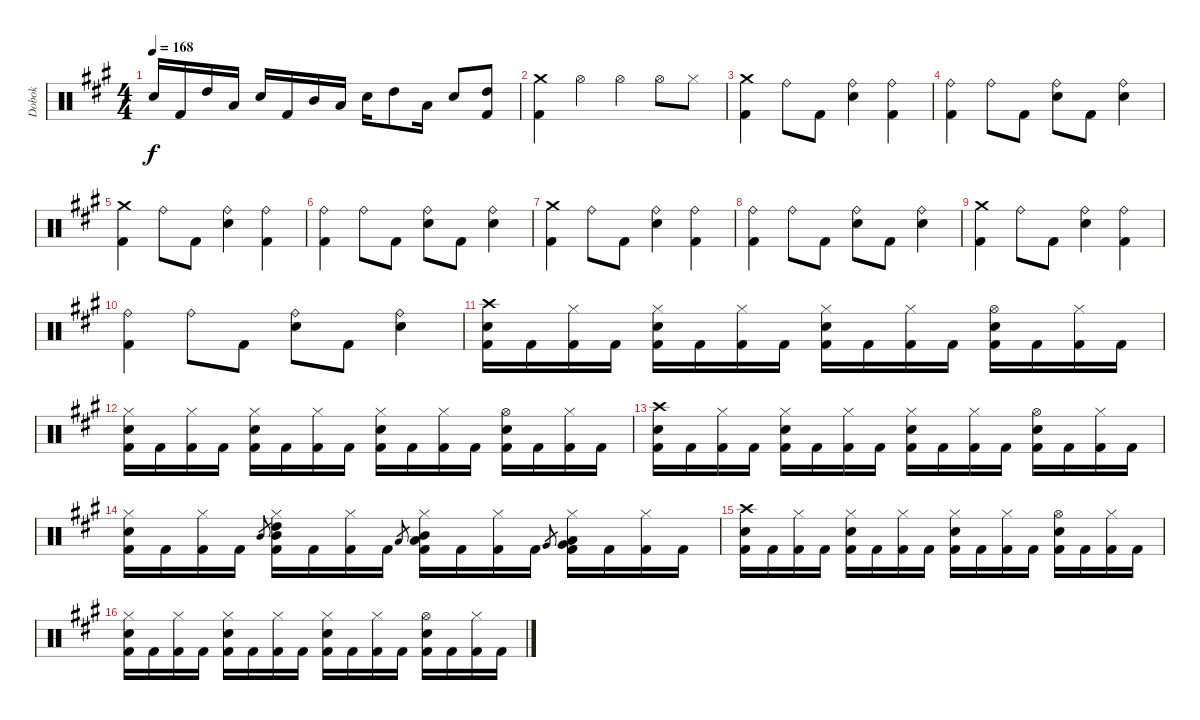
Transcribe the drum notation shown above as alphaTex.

\track ("Dobok" "Dobok") {instrument percussion}
\staff {score}
\articulation defaults
\ts (4 4)
\tempo 168
\clef neutral
\ks f#minor "Snare (hit) 2".16{dy f} "Kick (hit) 2".16 "High Tom (hit)".16 "Low Tom (hit)".16 "Snare (hit) 2".16 "Kick (hit) 2".16 "Mid Tom (hit)".16 "Low Tom (hit)".16 "Snare (hit) 2".16 "High Tom (hit)".8 "Low Tom (hit)".16 "Snare (hit) 2".8
("High Tom (hit)" "Kick (hit) 2").8 |
("Crash medium (hit)" "Kick (hit) 2").4 "Hi-Hat (open)".4 "Hi-Hat (open)".4 "Hi-Hat (open)".8 "Hi-Hat (closed)".8 |
("Crash medium (hit)" "Kick (hit) 2").4 "Ride (bell)".8 "Kick (hit) 2".8 ("Ride (bell)" "Snare (hit) 2").4 ("Ride (bell)" "Kick (hit) 2").4 |
("Ride (bell)" "Kick (hit) 2").4 "Ride (bell)".8 "Kick (hit) 2".8 ("Ride (bell)" "Snare (hit) 2").8 "Kick (hit) 2".8 ("Ride (bell)" "Snare (hit) 2").4 |
("Crash medium (hit)" "Kick (hit) 2").4 "Ride (bell)".8 "Kick (hit) 2".8 ("Ride (bell)" "Snare (hit) 2").4 ("Ride (bell)" "Kick (hit) 2").4 |
("Ride (bell)" "Kick (hit) 2").4 "Ride (bell)".8 "Kick (hit) 2".8 ("Ride (bell)" "Snare (hit) 2").8 "Kick (hit) 2".8 ("Ride (bell)" "Snare (hit) 2").4 |
("Crash medium (hit)" "Kick (hit) 2").4 "Ride (bell)".8 "Kick (hit) 2".8 ("Ride (bell)" "Snare (hit) 2").4 ("Ride (bell)" "Kick (hit) 2").4 |
("Ride (bell)" "Kick (hit) 2").4 "Ride (bell)".8 "Kick (hit) 2".8 ("Ride (bell)" "Snare (hit) 2").8 "Kick (hit) 2".8 ("Ride (bell)" "Snare (hit) 2").4 |
("Crash medium (hit)" "Kick (hit) 2").4 "Ride (bell)".8 "Kick (hit) 2".8 ("Ride (bell)" "Snare (hit) 2").4 ("Ride (bell)" "Kick (hit) 2").4 |
("Ride (bell)" "Kick (hit) 2").4 "Ride (bell)".8 "Kick (hit) 2".8 ("Ride (bell)" "Snare (hit) 2").8 "Kick (hit) 2".8 ("Ride (bell)" "Snare (hit) 2").4 |
("Crash high (hit)" "Snare (hit) 2" "Kick (hit) 2").16 "Kick (hit) 2".16 ("Hi-Hat (closed)" "Kick (hit) 2").16 "Kick (hit) 2".16 ("Hi-Hat (closed)" "Snare (hit) 2" "Kick (hit) 2").16 "Kick (hit) 2".16 ("Hi-Hat (closed)" "Kick (hit) 2").16 "Kick (hit) 2".16 ("Hi-Hat (closed)" "Snare (hit) 2" "Kick (hit) 2").16 "Kick (hit) 2".16 ("Hi-Hat (closed)" "Kick (hit) 2").16 "Kick (hit) 2".16 ("Hi-Hat (open)" "Snare (hit) 2" "Kick (hit) 2").16 "Kick (hit) 2".16 ("Hi-Hat (closed)" "Kick (hit) 2").16 "Kick (hit) 2".16 |
("Hi-Hat (closed)" "Snare (hit) 2" "Kick (hit) 2").16 "Kick (hit) 2".16 ("Hi-Hat (closed)" "Kick (hit) 2").16 "Kick (hit) 2".16 ("Hi-Hat (closed)" "Snare (hit) 2" "Kick (hit) 2").16 "Kick (hit) 2".16 ("Hi-Hat (closed)" "Kick (hit) 2").16 "Kick (hit) 2".16 ("Hi-Hat (closed)" "Snare (hit) 2" "Kick (hit) 2").16 "Kick (hit) 2".16 ("Hi-Hat (closed)" "Kick (hit) 2").16 "Kick (hit) 2".16 ("Hi-Hat (open)" "Snare (hit) 2" "Kick (hit) 2").16 "Kick (hit) 2".16 ("Hi-Hat (closed)" "Kick (hit) 2").16 "Kick (hit) 2".16 |
("Crash high (hit)" "Snare (hit) 2" "Kick (hit) 2").16 "Kick (hit) 2".16 ("Hi-Hat (closed)" "Kick (hit) 2").16 "Kick (hit) 2".16 ("Hi-Hat (closed)" "Snare (hit) 2" "Kick (hit) 2").16 "Kick (hit) 2".16 ("Hi-Hat (closed)" "Kick (hit) 2").16 "Kick (hit) 2".16 ("Hi-Hat (closed)" "Snare (hit) 2" "Kick (hit) 2").16 "Kick (hit) 2".16 ("Hi-Hat (closed)" "Kick (hit) 2").16 "Kick (hit) 2".16 ("Hi-Hat (open)" "Snare (hit) 2" "Kick (hit) 2").16 "Kick (hit) 2".16 ("Hi-Hat (closed)" "Kick (hit) 2").16 "Kick (hit) 2".16 |
("Hi-Hat (closed)" "Snare (hit) 2" "Kick (hit) 2").16 "Kick (hit) 2".16 ("Hi-Hat (closed)" "Kick (hit) 2").16 "Kick (hit) 2".16 "Mid Tom (hit)".8{gr} ("Hi-Hat (closed)" "High Tom (hit)" "Mid Tom (hit)" "Kick (hit) 2").16 "Kick (hit) 2".16 ("Hi-Hat (closed)" "Kick (hit) 2").16 "Kick (hit) 2".16 "Low Tom (hit)".8{gr} ("Hi-Hat (closed)" "Mid Tom (hit)" "Low Tom (hit)" "Kick (hit) 2").16 "Kick (hit) 2".16 ("Hi-Hat (closed)" "Kick (hit) 2").16 "Kick (hit) 2".16 "Very Low Tom (hit)".8{gr} ("Hi-Hat (closed)" "Low Tom (hit)" "Very Low Tom (hit)" "Kick (hit) 2").16 "Kick (hit) 2".16 ("Hi-Hat (closed)" "Kick (hit) 2").16 "Kick (hit) 2".16 |
("Crash high (hit)" "Snare (hit) 2" "Kick (hit) 2").16 "Kick (hit) 2".16 ("Hi-Hat (closed)" "Kick (hit) 2").16 "Kick (hit) 2".16 ("Hi-Hat (closed)" "Snare (hit) 2" "Kick (hit) 2").16 "Kick (hit) 2".16 ("Hi-Hat (closed)" "Kick (hit) 2").16 "Kick (hit) 2".16 ("Hi-Hat (closed)" "Snare (hit) 2" "Kick (hit) 2").16 "Kick (hit) 2".16 ("Hi-Hat (closed)" "Kick (hit) 2").16 "Kick (hit) 2".16 ("Hi-Hat (open)" "Snare (hit) 2" "Kick (hit) 2").16 "Kick (hit) 2".16 ("Hi-Hat (closed)" "Kick (hit) 2").16 "Kick (hit) 2".16 |
("Hi-Hat (closed)" "Snare (hit) 2" "Kick (hit) 2").16 "Kick (hit) 2".16 ("Hi-Hat (closed)" "Kick (hit) 2").16 "Kick (hit) 2".16 ("Hi-Hat (closed)" "Snare (hit) 2" "Kick (hit) 2").16 "Kick (hit) 2".16 ("Hi-Hat (closed)" "Kick (hit) 2").16 "Kick (hit) 2".16 ("Hi-Hat (closed)" "Snare (hit) 2" "Kick (hit) 2").16 "Kick (hit) 2".16 ("Hi-Hat (closed)" "Kick (hit) 2").16 "Kick (hit) 2".16 ("Hi-Hat (open)" "Snare (hit) 2" "Kick (hit) 2").16 "Kick (hit) 2".16 ("Hi-Hat (closed)" "Kick (hit) 2").16 "Kick (hit) 2".16
